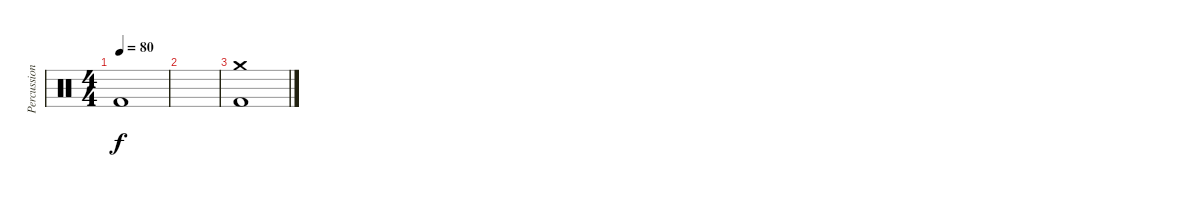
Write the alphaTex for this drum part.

\track ("Percussion" "Percussion") {instrument percussion}
\staff {score}
\articulation defaults
\ts (4 4)
\tempo 80
\clef neutral
\ks c "Kick (hit) 2".1{dy f}
|
|
("Crash medium (hit)" "Kick (hit) 2").1
